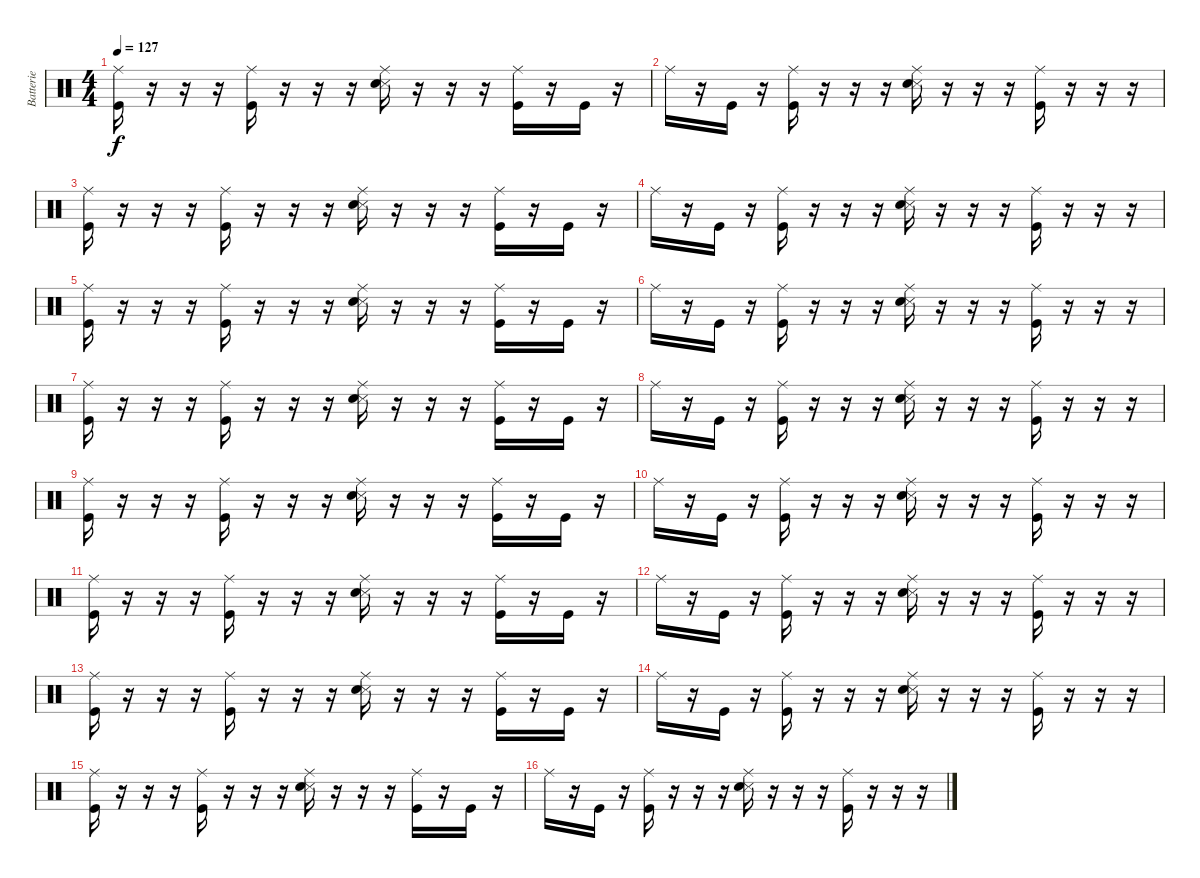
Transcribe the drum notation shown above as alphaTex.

\track ("Batterie" "Batterie") {instrument percussion}
\staff {score}
\articulation defaults
\ts (4 4)
\tempo 127
\clef neutral
\ks c
("Ride (middle)" "Kick (hit)").16{dy f} r.16 r.16 r.16 ("Ride (middle)" "Kick (hit)").16 r.16 r.16 r.16 ("Ride (middle)" "Snare (side stick) 3" "Electric Snare (hit)").16 r.16 r.16 r.16 ("Ride (middle)" "Kick (hit)").16 r.16 "Kick (hit)".16 r.16 |
"Ride (middle)".16 r.16 "Kick (hit)".16 r.16 ("Ride (middle)" "Kick (hit)").16 r.16 r.16 r.16 ("Ride (middle)" "Snare (side stick) 3" "Electric Snare (hit)").16 r.16 r.16 r.16 ("Ride (middle)" "Kick (hit)").16 r.16 r.16 r.16 |
("Ride (middle)" "Kick (hit)").16 r.16 r.16 r.16 ("Ride (middle)" "Kick (hit)").16 r.16 r.16 r.16 ("Ride (middle)" "Snare (side stick) 3" "Electric Snare (hit)").16 r.16 r.16 r.16 ("Ride (middle)" "Kick (hit)").16 r.16 "Kick (hit)".16 r.16 |
"Ride (middle)".16 r.16 "Kick (hit)".16 r.16 ("Ride (middle)" "Kick (hit)").16 r.16 r.16 r.16 ("Ride (middle)" "Snare (side stick) 3" "Electric Snare (hit)").16 r.16 r.16 r.16 ("Ride (middle)" "Kick (hit)").16 r.16 r.16 r.16 |
("Ride (middle)" "Kick (hit)").16 r.16 r.16 r.16 ("Ride (middle)" "Kick (hit)").16 r.16 r.16 r.16 ("Ride (middle)" "Snare (side stick) 3" "Electric Snare (hit)").16 r.16 r.16 r.16 ("Ride (middle)" "Kick (hit)").16 r.16 "Kick (hit)".16 r.16 |
"Ride (middle)".16 r.16 "Kick (hit)".16 r.16 ("Ride (middle)" "Kick (hit)").16 r.16 r.16 r.16 ("Ride (middle)" "Snare (side stick) 3" "Electric Snare (hit)").16 r.16 r.16 r.16 ("Ride (middle)" "Kick (hit)").16 r.16 r.16 r.16 |
("Ride (middle)" "Kick (hit)").16 r.16 r.16 r.16 ("Ride (middle)" "Kick (hit)").16 r.16 r.16 r.16 ("Ride (middle)" "Snare (side stick) 3" "Electric Snare (hit)").16 r.16 r.16 r.16 ("Ride (middle)" "Kick (hit)").16 r.16 "Kick (hit)".16 r.16 |
"Ride (middle)".16 r.16 "Kick (hit)".16 r.16 ("Ride (middle)" "Kick (hit)").16 r.16 r.16 r.16 ("Ride (middle)" "Snare (side stick) 3" "Electric Snare (hit)").16 r.16 r.16 r.16 ("Ride (middle)" "Kick (hit)").16 r.16 r.16 r.16 |
("Ride (middle)" "Kick (hit)").16 r.16 r.16 r.16 ("Ride (middle)" "Kick (hit)").16 r.16 r.16 r.16 ("Ride (middle)" "Snare (side stick) 3" "Electric Snare (hit)").16 r.16 r.16 r.16 ("Ride (middle)" "Kick (hit)").16 r.16 "Kick (hit)".16 r.16 |
"Ride (middle)".16 r.16 "Kick (hit)".16 r.16 ("Ride (middle)" "Kick (hit)").16 r.16 r.16 r.16 ("Ride (middle)" "Snare (side stick) 3" "Electric Snare (hit)").16 r.16 r.16 r.16 ("Ride (middle)" "Kick (hit)").16 r.16 r.16 r.16 |
("Ride (middle)" "Kick (hit)").16 r.16 r.16 r.16 ("Ride (middle)" "Kick (hit)").16 r.16 r.16 r.16 ("Ride (middle)" "Snare (side stick) 3" "Electric Snare (hit)").16 r.16 r.16 r.16 ("Ride (middle)" "Kick (hit)").16 r.16 "Kick (hit)".16 r.16 |
"Ride (middle)".16 r.16 "Kick (hit)".16 r.16 ("Ride (middle)" "Kick (hit)").16 r.16 r.16 r.16 ("Ride (middle)" "Snare (side stick) 3" "Electric Snare (hit)").16 r.16 r.16 r.16 ("Ride (middle)" "Kick (hit)").16 r.16 r.16 r.16 |
("Ride (middle)" "Kick (hit)").16 r.16 r.16 r.16 ("Ride (middle)" "Kick (hit)").16 r.16 r.16 r.16 ("Ride (middle)" "Snare (side stick) 3" "Electric Snare (hit)").16 r.16 r.16 r.16 ("Ride (middle)" "Kick (hit)").16 r.16 "Kick (hit)".16 r.16 |
"Ride (middle)".16 r.16 "Kick (hit)".16 r.16 ("Ride (middle)" "Kick (hit)").16 r.16 r.16 r.16 ("Ride (middle)" "Snare (side stick) 3" "Electric Snare (hit)").16 r.16 r.16 r.16 ("Ride (middle)" "Kick (hit)").16 r.16 r.16 r.16 |
("Ride (middle)" "Kick (hit)").16 r.16 r.16 r.16 ("Ride (middle)" "Kick (hit)").16 r.16 r.16 r.16 ("Ride (middle)" "Snare (side stick) 3" "Electric Snare (hit)").16 r.16 r.16 r.16 ("Ride (middle)" "Kick (hit)").16 r.16 "Kick (hit)".16 r.16 |
"Ride (middle)".16 r.16 "Kick (hit)".16 r.16 ("Ride (middle)" "Kick (hit)").16 r.16 r.16 r.16 ("Ride (middle)" "Snare (side stick) 3" "Electric Snare (hit)").16 r.16 r.16 r.16 ("Ride (middle)" "Kick (hit)").16 r.16 r.16 r.16
